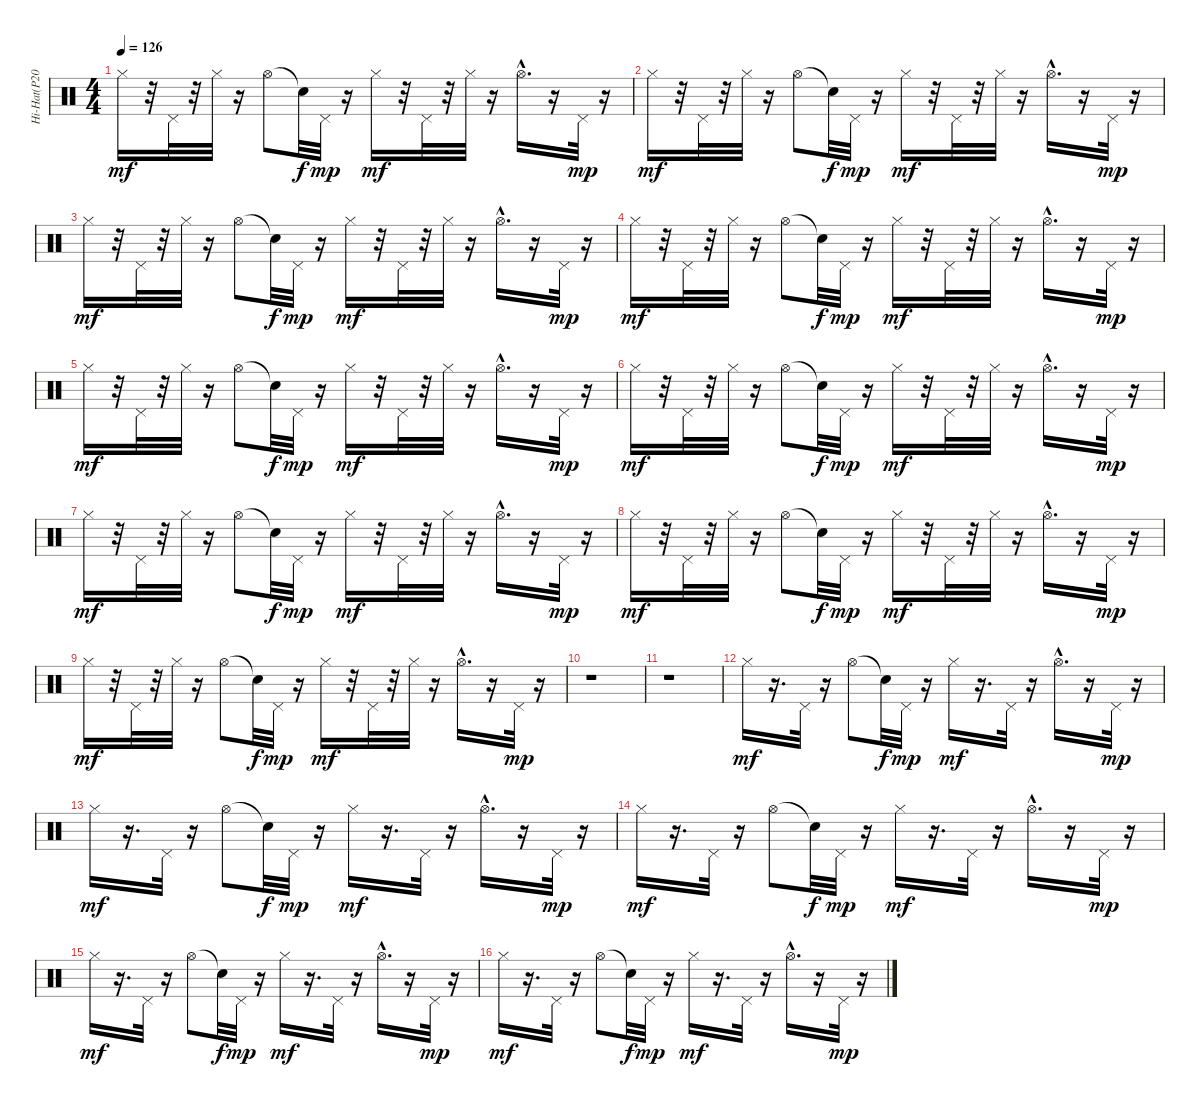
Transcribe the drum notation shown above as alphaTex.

\track ("Hi-Hat(P201)" "Hi-Hat(P20") {instrument percussion}
\staff {score}
\articulation defaults
\ts (4 4)
\tempo 126
\clef neutral
\ks c "Hi-Hat (closed)".16{dy mf}
r.32 "Pedal Hi-Hat (hit)".32 r.32 "Hi-Hat (closed)".32 r.16 "Hi-Hat (open)".8 "Snare (hit)"{t}.32{dy f} "Pedal Hi-Hat (hit)".32{dy mp} r.16 "Hi-Hat (closed)".16{dy mf} r.32 "Pedal Hi-Hat (hit)".32 r.32 "Hi-Hat (closed)".32 r.16 "Hi-Hat (open)"{hac}.16{d} r.16 "Pedal Hi-Hat (hit)".32{dy mp} r.16 |
"Hi-Hat (closed)".16{dy mf} r.32 "Pedal Hi-Hat (hit)".32 r.32 "Hi-Hat (closed)".32 r.16 "Hi-Hat (open)".8 "Snare (hit)"{t}.32{dy f} "Pedal Hi-Hat (hit)".32{dy mp} r.16 "Hi-Hat (closed)".16{dy mf} r.32 "Pedal Hi-Hat (hit)".32 r.32 "Hi-Hat (closed)".32 r.16 "Hi-Hat (open)"{hac}.16{d} r.16 "Pedal Hi-Hat (hit)".32{dy mp} r.16 |
"Hi-Hat (closed)".16{dy mf} r.32 "Pedal Hi-Hat (hit)".32 r.32 "Hi-Hat (closed)".32 r.16 "Hi-Hat (open)".8 "Snare (hit)"{t}.32{dy f} "Pedal Hi-Hat (hit)".32{dy mp} r.16 "Hi-Hat (closed)".16{dy mf} r.32 "Pedal Hi-Hat (hit)".32 r.32 "Hi-Hat (closed)".32 r.16 "Hi-Hat (open)"{hac}.16{d} r.16 "Pedal Hi-Hat (hit)".32{dy mp} r.16 |
"Hi-Hat (closed)".16{dy mf} r.32 "Pedal Hi-Hat (hit)".32 r.32 "Hi-Hat (closed)".32 r.16 "Hi-Hat (open)".8 "Snare (hit)"{t}.32{dy f} "Pedal Hi-Hat (hit)".32{dy mp} r.16 "Hi-Hat (closed)".16{dy mf} r.32 "Pedal Hi-Hat (hit)".32 r.32 "Hi-Hat (closed)".32 r.16 "Hi-Hat (open)"{hac}.16{d} r.16 "Pedal Hi-Hat (hit)".32{dy mp} r.16 |
"Hi-Hat (closed)".16{dy mf} r.32 "Pedal Hi-Hat (hit)".32 r.32 "Hi-Hat (closed)".32 r.16 "Hi-Hat (open)".8 "Snare (hit)"{t}.32{dy f} "Pedal Hi-Hat (hit)".32{dy mp} r.16 "Hi-Hat (closed)".16{dy mf} r.32 "Pedal Hi-Hat (hit)".32 r.32 "Hi-Hat (closed)".32 r.16 "Hi-Hat (open)"{hac}.16{d} r.16 "Pedal Hi-Hat (hit)".32{dy mp} r.16 |
"Hi-Hat (closed)".16{dy mf} r.32 "Pedal Hi-Hat (hit)".32 r.32 "Hi-Hat (closed)".32 r.16 "Hi-Hat (open)".8 "Snare (hit)"{t}.32{dy f} "Pedal Hi-Hat (hit)".32{dy mp} r.16 "Hi-Hat (closed)".16{dy mf} r.32 "Pedal Hi-Hat (hit)".32 r.32 "Hi-Hat (closed)".32 r.16 "Hi-Hat (open)"{hac}.16{d} r.16 "Pedal Hi-Hat (hit)".32{dy mp} r.16 |
"Hi-Hat (closed)".16{dy mf} r.32 "Pedal Hi-Hat (hit)".32 r.32 "Hi-Hat (closed)".32 r.16 "Hi-Hat (open)".8 "Snare (hit)"{t}.32{dy f} "Pedal Hi-Hat (hit)".32{dy mp} r.16 "Hi-Hat (closed)".16{dy mf} r.32 "Pedal Hi-Hat (hit)".32 r.32 "Hi-Hat (closed)".32 r.16 "Hi-Hat (open)"{hac}.16{d} r.16 "Pedal Hi-Hat (hit)".32{dy mp} r.16 |
"Hi-Hat (closed)".16{dy mf} r.32 "Pedal Hi-Hat (hit)".32 r.32 "Hi-Hat (closed)".32 r.16 "Hi-Hat (open)".8 "Snare (hit)"{t}.32{dy f} "Pedal Hi-Hat (hit)".32{dy mp} r.16 "Hi-Hat (closed)".16{dy mf} r.32 "Pedal Hi-Hat (hit)".32 r.32 "Hi-Hat (closed)".32 r.16 "Hi-Hat (open)"{hac}.16{d} r.16 "Pedal Hi-Hat (hit)".32{dy mp} r.16 |
"Hi-Hat (closed)".16{dy mf} r.32 "Pedal Hi-Hat (hit)".32 r.32 "Hi-Hat (closed)".32 r.16 "Hi-Hat (open)".8 "Snare (hit)"{t}.32{dy f} "Pedal Hi-Hat (hit)".32{dy mp} r.16 "Hi-Hat (closed)".16{dy mf} r.32 "Pedal Hi-Hat (hit)".32 r.32 "Hi-Hat (closed)".32 r.16 "Hi-Hat (open)"{hac}.16{d} r.16 "Pedal Hi-Hat (hit)".32{dy mp} r.16 |
r.1 |
r.1 |
"Hi-Hat (closed)".16{dy mf} r.16{d} "Pedal Hi-Hat (hit)".32 r.16 "Hi-Hat (open)".8 "Snare (hit)"{t}.32{dy f} "Pedal Hi-Hat (hit)".32{dy mp} r.16 "Hi-Hat (closed)".16{dy mf} r.16{d} "Pedal Hi-Hat (hit)".32 r.16 "Hi-Hat (open)"{hac}.16{d} r.16 "Pedal Hi-Hat (hit)".32{dy mp} r.16 |
"Hi-Hat (closed)".16{dy mf} r.16{d} "Pedal Hi-Hat (hit)".32 r.16 "Hi-Hat (open)".8 "Snare (hit)"{t}.32{dy f} "Pedal Hi-Hat (hit)".32{dy mp} r.16 "Hi-Hat (closed)".16{dy mf} r.16{d} "Pedal Hi-Hat (hit)".32 r.16 "Hi-Hat (open)"{hac}.16{d} r.16 "Pedal Hi-Hat (hit)".32{dy mp} r.16 |
"Hi-Hat (closed)".16{dy mf} r.16{d} "Pedal Hi-Hat (hit)".32 r.16 "Hi-Hat (open)".8 "Snare (hit)"{t}.32{dy f} "Pedal Hi-Hat (hit)".32{dy mp} r.16 "Hi-Hat (closed)".16{dy mf} r.16{d} "Pedal Hi-Hat (hit)".32 r.16 "Hi-Hat (open)"{hac}.16{d} r.16 "Pedal Hi-Hat (hit)".32{dy mp} r.16 |
"Hi-Hat (closed)".16{dy mf} r.16{d} "Pedal Hi-Hat (hit)".32 r.16 "Hi-Hat (open)".8 "Snare (hit)"{t}.32{dy f} "Pedal Hi-Hat (hit)".32{dy mp} r.16 "Hi-Hat (closed)".16{dy mf} r.16{d} "Pedal Hi-Hat (hit)".32 r.16 "Hi-Hat (open)"{hac}.16{d} r.16 "Pedal Hi-Hat (hit)".32{dy mp} r.16 |
"Hi-Hat (closed)".16{dy mf} r.16{d} "Pedal Hi-Hat (hit)".32 r.16 "Hi-Hat (open)".8 "Snare (hit)"{t}.32{dy f} "Pedal Hi-Hat (hit)".32{dy mp} r.16 "Hi-Hat (closed)".16{dy mf} r.16{d} "Pedal Hi-Hat (hit)".32 r.16 "Hi-Hat (open)"{hac}.16{d} r.16 "Pedal Hi-Hat (hit)".32{dy mp} r.16
